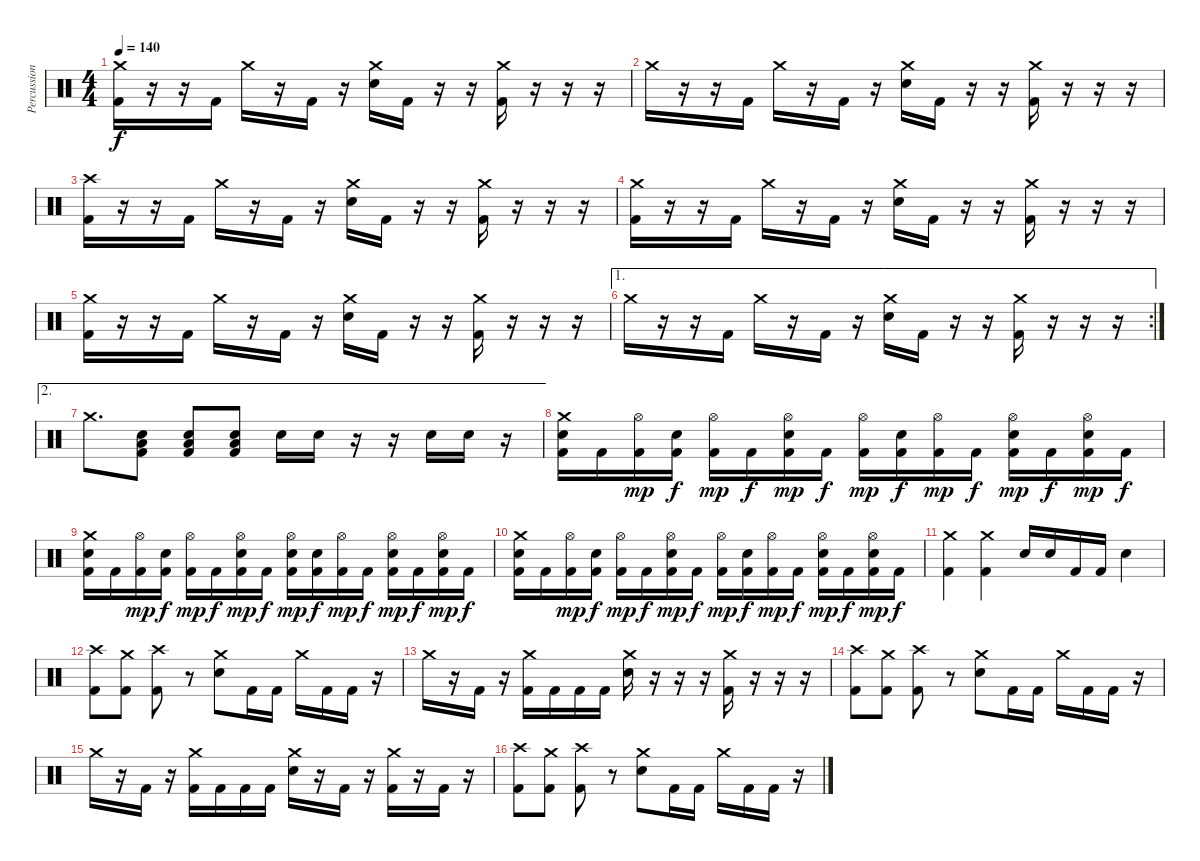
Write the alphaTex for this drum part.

\track ("Percussions" "Percussion") {instrument percussion}
\staff {score}
\articulation defaults
\ts (4 4)
\tempo 140
\clef neutral
\ks c
("Kick (hit) 2" "Crash medium (hit)").16{dy f} r.16 r.16 "Kick (hit) 2".16 "Crash medium (hit)".16 r.16 "Kick (hit) 2".16 r.16 ("Electric Snare (hit)" "Crash medium (hit)").16 "Kick (hit) 2".16 r.16 r.16 ("Kick (hit) 2" "Crash medium (hit)").16 r.16 r.16 r.16 |
"Crash medium (hit)".16 r.16 r.16 "Kick (hit) 2".16 "Crash medium (hit)".16 r.16 "Kick (hit) 2".16 r.16 ("Electric Snare (hit)" "Crash medium (hit)").16 "Kick (hit) 2".16 r.16 r.16 ("Kick (hit) 2" "Crash medium (hit)").16 r.16 r.16 r.16 |
("Kick (hit) 2" "Crash high (hit)").16 r.16 r.16 "Kick (hit) 2".16 "Crash medium (hit)".16 r.16 "Kick (hit) 2".16 r.16 ("Electric Snare (hit)" "Crash medium (hit)").16 "Kick (hit) 2".16 r.16 r.16 ("Kick (hit) 2" "Crash medium (hit)").16 r.16 r.16 r.16 |
("Kick (hit) 2" "Crash medium (hit)").16 r.16 r.16 "Kick (hit) 2".16 "Crash medium (hit)".16 r.16 "Kick (hit) 2".16 r.16 ("Electric Snare (hit)" "Crash medium (hit)").16 "Kick (hit) 2".16 r.16 r.16 ("Kick (hit) 2" "Crash medium (hit)").16 r.16 r.16 r.16 |
("Kick (hit) 2" "Crash medium (hit)").16 r.16 r.16 "Kick (hit) 2".16 "Crash medium (hit)".16 r.16 "Kick (hit) 2".16 r.16 ("Electric Snare (hit)" "Crash medium (hit)").16 "Kick (hit) 2".16 r.16 r.16 ("Kick (hit) 2" "Crash medium (hit)").16 r.16 r.16 r.16 |
\ae 1
\rc 2 "Crash medium (hit)".16
r.16 r.16 "Kick (hit) 2".16 "Crash medium (hit)".16 r.16 "Kick (hit) 2".16 r.16 ("Electric Snare (hit)" "Crash medium (hit)").16 "Kick (hit) 2".16 r.16 r.16 ("Kick (hit) 2" "Crash medium (hit)").16 r.16 r.16 r.16 |
\ae 2 "Crash medium (hit)".8{d}
("Kick (hit) 2" "Electric Snare (hit)" "Low Tom (hit)").8 ("Kick (hit) 2" "Electric Snare (hit)" "Low Tom (hit)").8 ("Kick (hit) 2" "Electric Snare (hit)" "Low Tom (hit)").8 "Electric Snare (hit)".16 "Electric Snare (hit)".16 r.16 r.16 "Electric Snare (hit)".16 "Electric Snare (hit)".16 r.16 |
("Kick (hit) 2" "Electric Snare (hit)" "Crash medium (hit)").16 "Kick (hit) 2".16 ("Kick (hit) 2" "Hi-Hat (open)").16{dy mp} ("Kick (hit) 2" "Electric Snare (hit)").16{dy f} ("Kick (hit) 2" "Hi-Hat (open)").16{dy mp} "Kick (hit) 2".16{dy f} ("Kick (hit) 2" "Electric Snare (hit)" "Hi-Hat (open)").16{dy mp} "Kick (hit) 2".16{dy f} ("Kick (hit) 2" "Hi-Hat (open)").16{dy mp} ("Kick (hit) 2" "Electric Snare (hit)").16{dy f} ("Kick (hit) 2" "Hi-Hat (open)").16{dy mp} "Kick (hit) 2".16{dy f} ("Kick (hit) 2" "Electric Snare (hit)" "Hi-Hat (open)").16{dy mp} "Kick (hit) 2".16{dy f} ("Kick (hit) 2" "Electric Snare (hit)" "Hi-Hat (open)").16{dy mp} "Kick (hit) 2".16{dy f} |
("Kick (hit) 2" "Electric Snare (hit)" "Crash medium (hit)").16 "Kick (hit) 2".16 ("Kick (hit) 2" "Hi-Hat (open)").16{dy mp} ("Kick (hit) 2" "Electric Snare (hit)").16{dy f} ("Kick (hit) 2" "Hi-Hat (open)").16{dy mp} "Kick (hit) 2".16{dy f} ("Kick (hit) 2" "Electric Snare (hit)" "Hi-Hat (open)").16{dy mp} "Kick (hit) 2".16{dy f} ("Kick (hit) 2" "Electric Snare (hit)" "Hi-Hat (open)").16{dy mp} ("Kick (hit) 2" "Electric Snare (hit)").16{dy f} ("Kick (hit) 2" "Hi-Hat (open)").16{dy mp} "Kick (hit) 2".16{dy f} ("Kick (hit) 2" "Electric Snare (hit)" "Hi-Hat (open)").16{dy mp} "Kick (hit) 2".16{dy f} ("Kick (hit) 2" "Electric Snare (hit)" "Hi-Hat (open)").16{dy mp} "Kick (hit) 2".16{dy f} |
("Kick (hit) 2" "Electric Snare (hit)" "Crash medium (hit)").16 "Kick (hit) 2".16 ("Kick (hit) 2" "Hi-Hat (open)").16{dy mp} ("Kick (hit) 2" "Electric Snare (hit)").16{dy f} ("Kick (hit) 2" "Hi-Hat (open)").16{dy mp} "Kick (hit) 2".16{dy f} ("Kick (hit) 2" "Electric Snare (hit)" "Hi-Hat (open)").16{dy mp} "Kick (hit) 2".16{dy f} ("Kick (hit) 2" "Hi-Hat (open)").16{dy mp} ("Kick (hit) 2" "Electric Snare (hit)").16{dy f} ("Kick (hit) 2" "Hi-Hat (open)").16{dy mp} "Kick (hit) 2".16{dy f} ("Kick (hit) 2" "Electric Snare (hit)" "Hi-Hat (open)").16{dy mp} "Kick (hit) 2".16{dy f} ("Kick (hit) 2" "Electric Snare (hit)" "Hi-Hat (open)").16{dy mp} "Kick (hit) 2".16{dy f} |
("Kick (hit) 2" "Crash medium (hit)").4 ("Kick (hit) 2" "Crash medium (hit)").4 "Electric Snare (hit)".16 "Electric Snare (hit)".16 "Kick (hit) 2".16 "Kick (hit) 2".16 "Electric Snare (hit)".4 |
("Kick (hit) 2" "Crash high (hit)").8 ("Kick (hit) 2" "Crash medium (hit)").8 ("Kick (hit) 2" "Crash high (hit)").8 r.8 ("Electric Snare (hit)" "Crash medium (hit)").8 "Kick (hit) 2".16 "Kick (hit) 2".16 "Crash medium (hit)".16 "Kick (hit) 2".16 "Kick (hit) 2".16 r.16 |
"Crash medium (hit)".16 r.16 "Kick (hit) 2".16 r.16 ("Kick (hit) 2" "Crash medium (hit)").16 "Kick (hit) 2".16 "Kick (hit) 2".16 "Kick (hit) 2".16 ("Electric Snare (hit)" "Crash medium (hit)").16 r.16 r.16 r.16 ("Kick (hit) 2" "Crash medium (hit)").16 r.16 r.16 r.16 |
("Kick (hit) 2" "Crash high (hit)").8 ("Kick (hit) 2" "Crash medium (hit)").8 ("Kick (hit) 2" "Crash high (hit)").8 r.8 ("Electric Snare (hit)" "Crash medium (hit)").8 "Kick (hit) 2".16 "Kick (hit) 2".16 "Crash medium (hit)".16 "Kick (hit) 2".16 "Kick (hit) 2".16 r.16 |
"Crash medium (hit)".16 r.16 "Kick (hit) 2".16 r.16 ("Kick (hit) 2" "Crash medium (hit)").16 "Kick (hit) 2".16 "Kick (hit) 2".16 "Kick (hit) 2".16 ("Electric Snare (hit)" "Crash medium (hit)").16 r.16 "Kick (hit) 2".16 r.16 ("Kick (hit) 2" "Crash medium (hit)").16 r.16 "Kick (hit) 2".16 r.16 |
("Kick (hit) 2" "Crash high (hit)").8 ("Kick (hit) 2" "Crash medium (hit)").8 ("Kick (hit) 2" "Crash high (hit)").8 r.8 ("Electric Snare (hit)" "Crash medium (hit)").8 "Kick (hit) 2".16 "Kick (hit) 2".16 "Crash medium (hit)".16 "Kick (hit) 2".16 "Kick (hit) 2".16 r.16
